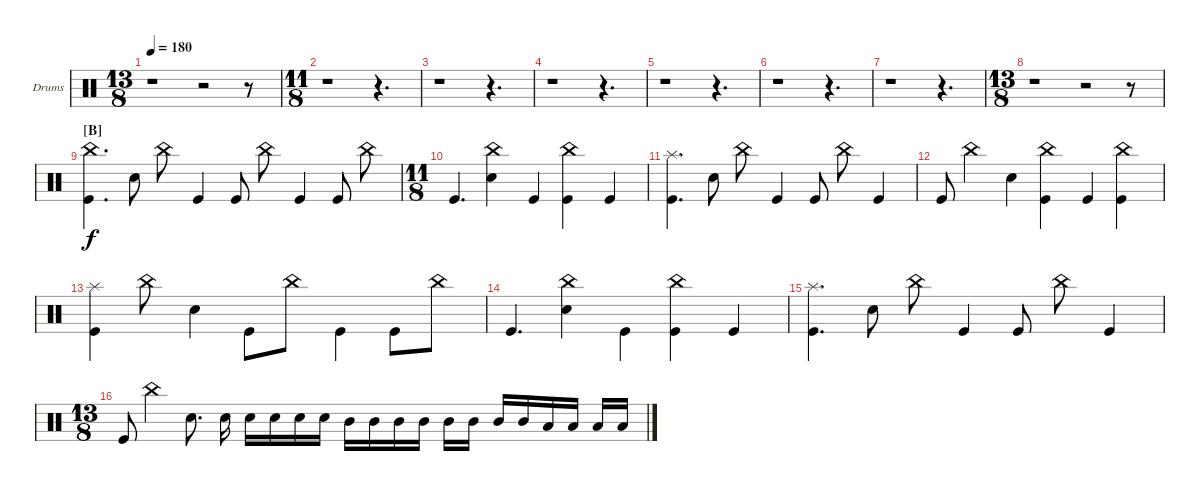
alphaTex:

\defaultSystemsLayout 4
\bracketExtendMode groupsimilarinstruments
\firstSystemTrackNameOrientation horizontal
\otherSystemsTrackNameOrientation horizontal
\track ("Drumkit" "Drums") {instrument percussion}
\staff {score}
\articulation defaults
\ts (13 8)
\tempo 180
\clef neutral
\ks c
r.1{dy f} r.2 r.8 |
\ts (11 8)
r.1 r.4{d} |
r.1 r.4{d} |
r.1 r.4{d} |
r.1 r.4{d} |
r.1 r.4{d} |
r.1 r.4{d} |
\ts (13 8)
r.1 r.2 r.8 |
\section ("B" "")
("Kick (hit)" "China (hit)").4{d} "Snare (hit) 2".8 "China (hit)".8 "Kick (hit)".4 "Kick (hit)".8 "China (hit)".8 "Kick (hit)".4 "Kick (hit)".8 "China (hit)".8 |
\ts (11 8)
"Kick (hit)".4{d} ("Snare (hit) 2" "China (hit)").4 "Kick (hit)".4 ("Kick (hit)" "China (hit)").4 "Kick (hit)".4 |
("Kick (hit)" "Splash (hit)").4{d} "Snare (hit) 2".8 "China (hit)".8 "Kick (hit)".4 "Kick (hit)".8 "China (hit)".8 "Kick (hit)".4 |
"Kick (hit)".8 "China (hit)".4 "Snare (hit) 2".4 ("Kick (hit)" "China (hit)").4 "Kick (hit)".4 ("Kick (hit)" "China (hit)").4 |
("Kick (hit)" "Splash (hit)").4 "China (hit)".8 "Snare (hit) 2".4 "Kick (hit)".8{beam merge} "China (hit)".8{beam split} "Kick (hit)".4{beam merge} "Kick (hit)".8{beam merge} "China (hit)".8 |
"Kick (hit)".4{d} ("Snare (hit) 2" "China (hit)").4 "Kick (hit)".4{beam merge} ("Kick (hit)" "China (hit)").4 "Kick (hit)".4 |
("Kick (hit)" "Splash (hit)").4{d} "Snare (hit) 2".8 "China (hit)".8 "Kick (hit)".4 "Kick (hit)".8 "China (hit)".8 "Kick (hit)".4 |
\ts (13 8)
"Kick (hit)".8 "China (hit)".4 "Snare (hit) 2".8{d} "Snare (hit) 2".16{beam split} "Snare (hit) 2".16{beam merge} "Snare (hit) 2".16{beam merge} "Snare (hit) 2".16 "Snare (hit) 2".16{beam split} "Mid Tom (hit)".16{beam merge} "Mid Tom (hit)".16{beam merge} "Mid Tom (hit)".16{beam merge} "Mid Tom (hit)".16{beam split} "Mid Tom (hit)".16{beam merge} "Mid Tom (hit)".16 "Mid Tom (hit)".16 "Mid Tom (hit)".16 "Low Tom (hit)".16 "Low Tom (hit)".16 "Low Tom (hit)".16 "Low Tom (hit)".16
